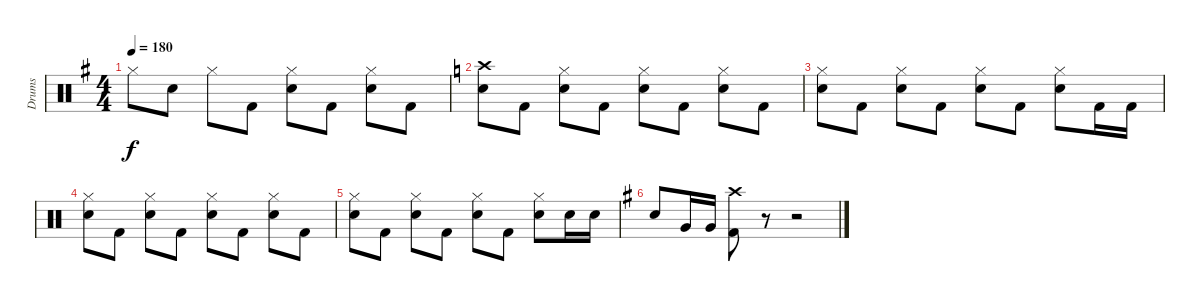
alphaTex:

\track ("Drums" "Drums") {instrument percussion}
\staff {score}
\articulation defaults
\ts (4 4)
\tempo 180
\clef neutral
\ks g "Hi-Hat (closed)".8{dy f} "Snare (hit) 2".8 "Hi-Hat (closed)".8 "Kick (hit) 2".8
("Hi-Hat (closed)" "Snare (hit) 2").8 "Kick (hit) 2".8 ("Hi-Hat (closed)" "Snare (hit) 2").8 "Kick (hit) 2".8 |
\ks c
("Crash high (hit)" "Snare (hit) 2").8 "Kick (hit) 2".8 ("Hi-Hat (closed)" "Snare (hit) 2").8 "Kick (hit) 2".8 ("Hi-Hat (closed)" "Snare (hit) 2").8 "Kick (hit) 2".8 ("Hi-Hat (closed)" "Snare (hit) 2").8 "Kick (hit) 2".8 |
("Hi-Hat (closed)" "Snare (hit) 2").8 "Kick (hit) 2".8 ("Hi-Hat (closed)" "Snare (hit) 2").8 "Kick (hit) 2".8 ("Hi-Hat (closed)" "Snare (hit) 2").8 "Kick (hit) 2".8 ("Hi-Hat (closed)" "Snare (hit) 2").8 "Kick (hit) 2".16 "Kick (hit) 2".16 |
("Hi-Hat (closed)" "Snare (hit) 2").8 "Kick (hit) 2".8 ("Hi-Hat (closed)" "Snare (hit) 2").8 "Kick (hit) 2".8 ("Hi-Hat (closed)" "Snare (hit) 2").8 "Kick (hit) 2".8 ("Hi-Hat (closed)" "Snare (hit) 2").8 "Kick (hit) 2".8 |
("Hi-Hat (closed)" "Snare (hit) 2").8 "Kick (hit) 2".8 ("Hi-Hat (closed)" "Snare (hit) 2").8 "Kick (hit) 2".8 ("Hi-Hat (closed)" "Snare (hit) 2").8 "Kick (hit) 2".8 ("Hi-Hat (closed)" "Snare (hit) 2").8 "Snare (hit) 2".16 "Snare (hit) 2".16 |
\ks g "Snare (hit) 2".8 "Very Low Tom (hit)".16 "Very Low Tom (hit)".16
("Crash high (hit)" "Kick (hit) 2").8 r.8 r.2
